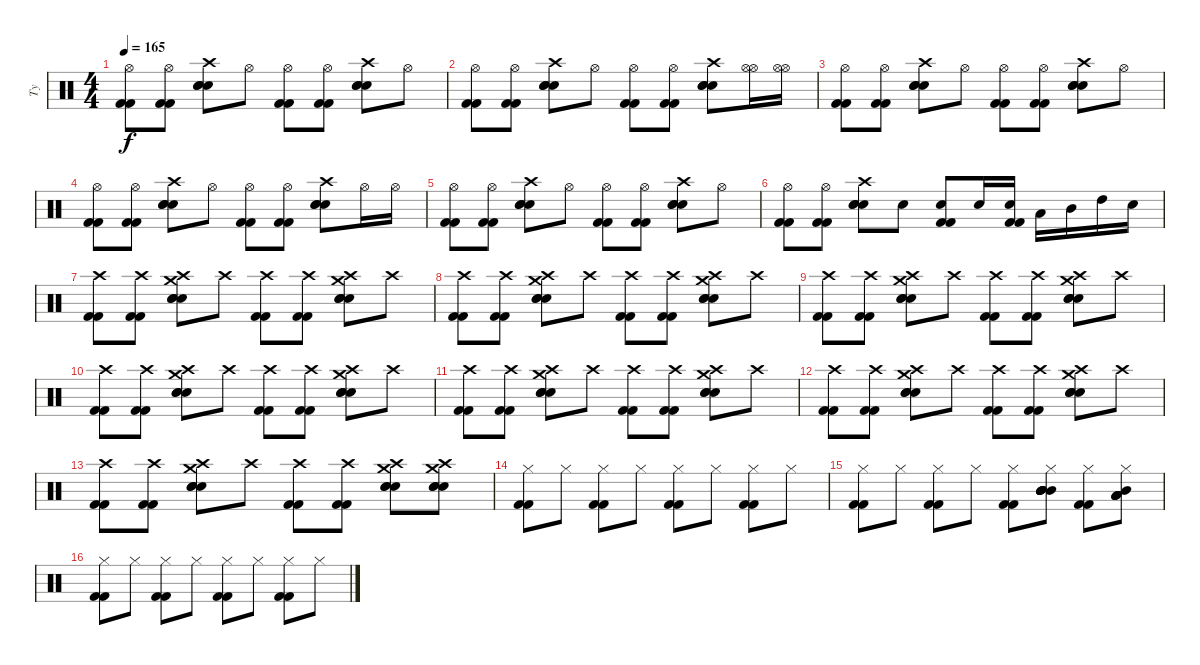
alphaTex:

\track ("Ty" "Ty") {instrument percussion}
\staff {score}
\articulation defaults
\ts (4 4)
\tempo 165
\clef neutral
\ks c
("Hi-Hat (open)" "Kick (hit) 2" "Kick (hit) 2").8{dy f} ("Hi-Hat (open)" "Kick (hit) 2" "Kick (hit) 2").8 ("Crash high (hit)" "Hand Clap (hit)" "Hand Clap (hit)" "Electric Snare (hit)").8 "Hi-Hat (open)".8 ("Hi-Hat (open)" "Kick (hit) 2" "Kick (hit) 2").8 ("Hi-Hat (open)" "Kick (hit) 2" "Kick (hit) 2").8 ("Crash high (hit)" "Hand Clap (hit)" "Hand Clap (hit)" "Electric Snare (hit)").8 "Hi-Hat (open)".8 |
("Hi-Hat (open)" "Kick (hit) 2" "Kick (hit) 2").8 ("Hi-Hat (open)" "Kick (hit) 2" "Kick (hit) 2").8 ("Crash high (hit)" "Hand Clap (hit)" "Hand Clap (hit)" "Electric Snare (hit)").8 "Hi-Hat (open)".8 ("Hi-Hat (open)" "Kick (hit) 2" "Kick (hit) 2").8 ("Hi-Hat (open)" "Kick (hit) 2" "Kick (hit) 2").8 ("Crash high (hit)" "Hand Clap (hit)" "Hand Clap (hit)" "Electric Snare (hit)").8 ("Hi-Hat (open)" "Hi-Hat (open)").16 ("Hi-Hat (open)" "Hi-Hat (open)").16 |
("Hi-Hat (open)" "Kick (hit) 2" "Kick (hit) 2").8 ("Hi-Hat (open)" "Kick (hit) 2" "Kick (hit) 2").8 ("Crash high (hit)" "Hand Clap (hit)" "Hand Clap (hit)" "Electric Snare (hit)").8 "Hi-Hat (open)".8 ("Hi-Hat (open)" "Kick (hit) 2" "Kick (hit) 2").8 ("Hi-Hat (open)" "Kick (hit) 2" "Kick (hit) 2").8 ("Crash high (hit)" "Hand Clap (hit)" "Hand Clap (hit)" "Electric Snare (hit)").8 "Hi-Hat (open)".8 |
("Hi-Hat (open)" "Kick (hit) 2" "Kick (hit) 2").8 ("Hi-Hat (open)" "Kick (hit) 2" "Kick (hit) 2").8 ("Crash high (hit)" "Hand Clap (hit)" "Hand Clap (hit)" "Electric Snare (hit)").8 "Hi-Hat (open)".8 ("Hi-Hat (open)" "Kick (hit) 2" "Kick (hit) 2").8 ("Hi-Hat (open)" "Kick (hit) 2" "Kick (hit) 2").8 ("Crash high (hit)" "Hand Clap (hit)" "Hand Clap (hit)" "Electric Snare (hit)").8 "Hi-Hat (open)".16 "Hi-Hat (open)".16 |
("Hi-Hat (open)" "Kick (hit) 2" "Kick (hit) 2").8 ("Hi-Hat (open)" "Kick (hit) 2" "Kick (hit) 2").8 ("Crash high (hit)" "Hand Clap (hit)" "Hand Clap (hit)" "Electric Snare (hit)").8 "Hi-Hat (open)".8 ("Hi-Hat (open)" "Kick (hit) 2" "Kick (hit) 2").8 ("Hi-Hat (open)" "Kick (hit) 2" "Kick (hit) 2").8 ("Crash high (hit)" "Hand Clap (hit)" "Hand Clap (hit)" "Electric Snare (hit)").8 "Hi-Hat (open)".8 |
("Hi-Hat (open)" "Kick (hit) 2" "Kick (hit) 2").8 ("Hi-Hat (open)" "Kick (hit) 2" "Kick (hit) 2").8 ("Crash high (hit)" "Hand Clap (hit)" "Hand Clap (hit)" "Electric Snare (hit)").8 "Electric Snare (hit)".8 ("Electric Snare (hit)" "Kick (hit) 2" "Kick (hit) 2").8 "Electric Snare (hit)".16 ("Electric Snare (hit)" "Kick (hit) 2" "Kick (hit) 2").16 "Low Tom (hit)".16 "Mid Tom (hit)".16 "High Tom (hit)".16 "Electric Snare (hit)".16 |
("Crash high (hit)" "Kick (hit) 2" "Kick (hit) 2").8 ("Crash high (hit)" "Kick (hit) 2" "Kick (hit) 2").8 ("Crash high (hit)" "Hand Clap (hit)" "Hand Clap (hit)" "Electric Snare (hit)" "Crash medium (hit)").8 "Crash high (hit)".8 ("Crash high (hit)" "Kick (hit) 2" "Kick (hit) 2").8 ("Crash high (hit)" "Kick (hit) 2" "Kick (hit) 2").8 ("Crash high (hit)" "Hand Clap (hit)" "Hand Clap (hit)" "Electric Snare (hit)" "Crash medium (hit)").8 "Crash high (hit)".8 |
("Crash high (hit)" "Kick (hit) 2" "Kick (hit) 2").8 ("Crash high (hit)" "Kick (hit) 2" "Kick (hit) 2").8 ("Crash high (hit)" "Hand Clap (hit)" "Hand Clap (hit)" "Electric Snare (hit)" "Crash medium (hit)").8 "Crash high (hit)".8 ("Crash high (hit)" "Kick (hit) 2" "Kick (hit) 2").8 ("Crash high (hit)" "Kick (hit) 2" "Kick (hit) 2").8 ("Crash high (hit)" "Hand Clap (hit)" "Hand Clap (hit)" "Electric Snare (hit)" "Crash medium (hit)").8 "Crash high (hit)".8 |
("Crash high (hit)" "Kick (hit) 2" "Kick (hit) 2").8 ("Crash high (hit)" "Kick (hit) 2" "Kick (hit) 2").8 ("Crash high (hit)" "Hand Clap (hit)" "Hand Clap (hit)" "Electric Snare (hit)" "Crash medium (hit)").8 "Crash high (hit)".8 ("Crash high (hit)" "Kick (hit) 2" "Kick (hit) 2").8 ("Crash high (hit)" "Kick (hit) 2" "Kick (hit) 2").8 ("Crash high (hit)" "Hand Clap (hit)" "Hand Clap (hit)" "Electric Snare (hit)" "Crash medium (hit)").8 "Crash high (hit)".8 |
("Crash high (hit)" "Kick (hit) 2" "Kick (hit) 2").8 ("Crash high (hit)" "Kick (hit) 2" "Kick (hit) 2").8 ("Crash high (hit)" "Hand Clap (hit)" "Hand Clap (hit)" "Electric Snare (hit)" "Crash medium (hit)").8 "Crash high (hit)".8 ("Crash high (hit)" "Kick (hit) 2" "Kick (hit) 2").8 ("Crash high (hit)" "Kick (hit) 2" "Kick (hit) 2").8 ("Crash high (hit)" "Hand Clap (hit)" "Hand Clap (hit)" "Electric Snare (hit)" "Crash medium (hit)").8 "Crash high (hit)".8 |
("Crash high (hit)" "Kick (hit) 2" "Kick (hit) 2").8 ("Crash high (hit)" "Kick (hit) 2" "Kick (hit) 2").8 ("Crash high (hit)" "Hand Clap (hit)" "Hand Clap (hit)" "Electric Snare (hit)" "Crash medium (hit)").8 "Crash high (hit)".8 ("Crash high (hit)" "Kick (hit) 2" "Kick (hit) 2").8 ("Crash high (hit)" "Kick (hit) 2" "Kick (hit) 2").8 ("Crash high (hit)" "Hand Clap (hit)" "Hand Clap (hit)" "Electric Snare (hit)" "Crash medium (hit)").8 "Crash high (hit)".8 |
("Crash high (hit)" "Kick (hit) 2" "Kick (hit) 2").8 ("Crash high (hit)" "Kick (hit) 2" "Kick (hit) 2").8 ("Crash high (hit)" "Hand Clap (hit)" "Hand Clap (hit)" "Electric Snare (hit)" "Crash medium (hit)").8 "Crash high (hit)".8 ("Crash high (hit)" "Kick (hit) 2" "Kick (hit) 2").8 ("Crash high (hit)" "Kick (hit) 2" "Kick (hit) 2").8 ("Crash high (hit)" "Hand Clap (hit)" "Hand Clap (hit)" "Electric Snare (hit)" "Crash medium (hit)").8 "Crash high (hit)".8 |
("Crash high (hit)" "Kick (hit) 2" "Kick (hit) 2").8 ("Crash high (hit)" "Kick (hit) 2" "Kick (hit) 2").8 ("Crash high (hit)" "Hand Clap (hit)" "Hand Clap (hit)" "Electric Snare (hit)" "Crash medium (hit)").8 "Crash high (hit)".8 ("Crash high (hit)" "Kick (hit) 2" "Kick (hit) 2").8 ("Crash high (hit)" "Kick (hit) 2" "Kick (hit) 2").8 ("Crash high (hit)" "Hand Clap (hit)" "Hand Clap (hit)" "Electric Snare (hit)" "Crash medium (hit)").8 ("Crash high (hit)" "Hand Clap (hit)" "Hand Clap (hit)" "Electric Snare (hit)" "Crash medium (hit)").8 |
("Hi-Hat (closed)" "Kick (hit) 2" "Kick (hit) 2").8 "Hi-Hat (closed)".8 ("Hi-Hat (closed)" "Kick (hit) 2" "Kick (hit) 2").8 "Hi-Hat (closed)".8 ("Hi-Hat (closed)" "Kick (hit) 2" "Kick (hit) 2").8 "Hi-Hat (closed)".8 ("Hi-Hat (closed)" "Kick (hit) 2" "Kick (hit) 2").8 "Hi-Hat (closed)".8 |
("Hi-Hat (closed)" "Kick (hit) 2" "Kick (hit) 2").8 "Hi-Hat (closed)".8 ("Hi-Hat (closed)" "Kick (hit) 2" "Kick (hit) 2").8 "Hi-Hat (closed)".8 ("Hi-Hat (closed)" "Kick (hit) 2" "Kick (hit) 2").8 ("Hi-Hat (closed)" "Mid Tom (hit)" "Mid Tom (hit)" "Mid Tom (hit)" "Mid Tom (hit)" "Mid Tom (hit)").8 ("Hi-Hat (closed)" "Kick (hit) 2" "Kick (hit) 2").8 ("Hi-Hat (closed)" "Mid Tom (hit)" "Low Tom (hit)" "Low Tom (hit)" "Low Tom (hit)" "Low Tom (hit)").8 |
("Hi-Hat (closed)" "Kick (hit) 2" "Kick (hit) 2").8 "Hi-Hat (closed)".8 ("Hi-Hat (closed)" "Kick (hit) 2" "Kick (hit) 2").8 "Hi-Hat (closed)".8 ("Hi-Hat (closed)" "Kick (hit) 2" "Kick (hit) 2").8 "Hi-Hat (closed)".8 ("Hi-Hat (closed)" "Kick (hit) 2" "Kick (hit) 2").8 "Hi-Hat (closed)".8
